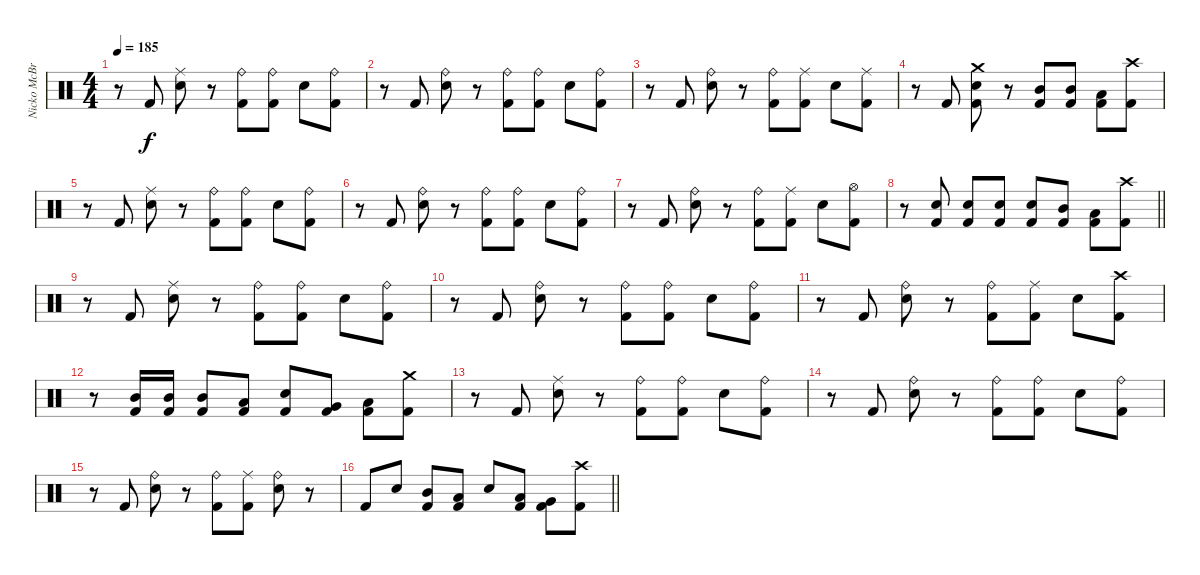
\track ("Nicko McBrain" "Nicko McBr") {instrument percussion}
\staff {score}
\articulation defaults
\ts (4 4)
\tempo 185
\clef neutral
\ks c
r.8{dy f} "Kick (hit) 2".8 ("Ride (middle)" "Snare (hit) 2").8 r.8 ("Ride (bell)" "Kick (hit) 2").8 ("Ride (bell)" "Kick (hit) 2").8 "Snare (hit) 2".8 ("Ride (bell)" "Kick (hit) 2").8 |
r.8 "Kick (hit) 2".8 ("Ride (bell)" "Snare (hit) 2").8 r.8 ("Ride (bell)" "Kick (hit) 2").8 ("Ride (bell)" "Kick (hit) 2").8 "Snare (hit) 2".8 ("Ride (bell)" "Kick (hit) 2").8 |
r.8 "Kick (hit) 2".8 ("Ride (bell)" "Snare (hit) 2").8 r.8 ("Ride (bell)" "Kick (hit) 2").8 ("Ride (middle)" "Kick (hit) 2").8 "Snare (hit) 2".8 ("Ride (middle)" "Kick (hit) 2").8 |
r.8 "Kick (hit) 2".8 ("Crash medium (hit)" "Snare (hit) 2" "Kick (hit) 2").8 r.8 ("Mid Tom (hit)" "Kick (hit) 2").8 ("Mid Tom (hit)" "Kick (hit) 2").8 ("Low Tom (hit)" "Kick (hit) 2").8 ("Crash high (hit)" "Kick (hit) 2").8 |
r.8 "Kick (hit) 2".8 ("Ride (middle)" "Snare (hit) 2").8 r.8 ("Ride (bell)" "Kick (hit) 2").8 ("Ride (bell)" "Kick (hit) 2").8 "Snare (hit) 2".8 ("Ride (bell)" "Kick (hit) 2").8 |
r.8 "Kick (hit) 2".8 ("Ride (bell)" "Snare (hit) 2").8 r.8 ("Ride (bell)" "Kick (hit) 2").8 ("Ride (bell)" "Kick (hit) 2").8 "Snare (hit) 2".8 ("Ride (bell)" "Kick (hit) 2").8 |
r.8 "Kick (hit) 2".8 ("Ride (bell)" "Snare (hit) 2").8 r.8 ("Ride (bell)" "Kick (hit) 2").8 ("Ride (middle)" "Kick (hit) 2").8 "Snare (hit) 2".8 ("Hi-Hat (open)" "Kick (hit) 2").8 |
\barLineRight lightlight
r.8 ("Snare (hit) 2" "Kick (hit) 2").8 ("Snare (hit) 2" "Kick (hit) 2").8 ("Snare (hit) 2" "Kick (hit) 2").8 ("Snare (hit) 2" "Kick (hit) 2").8 ("Mid Tom (hit)" "Kick (hit) 2").8 ("Low Tom (hit)" "Kick (hit) 2").8 ("Crash high (hit)" "Kick (hit) 2").8 |
r.8 "Kick (hit) 2".8 ("Ride (middle)" "Snare (hit) 2").8 r.8 ("Ride (bell)" "Kick (hit) 2").8 ("Ride (bell)" "Kick (hit) 2").8 "Snare (hit) 2".8 ("Ride (bell)" "Kick (hit) 2").8 |
r.8 "Kick (hit) 2".8 ("Ride (bell)" "Snare (hit) 2").8 r.8 ("Ride (bell)" "Kick (hit) 2").8 ("Ride (bell)" "Kick (hit) 2").8 "Snare (hit) 2".8 ("Ride (bell)" "Kick (hit) 2").8 |
r.8 "Kick (hit) 2".8 ("Ride (bell)" "Snare (hit) 2").8 r.8 ("Ride (bell)" "Kick (hit) 2").8 ("Ride (middle)" "Kick (hit) 2").8 "Snare (hit) 2".8 ("Crash high (hit)" "Kick (hit) 2").8 |
r.8 ("Mid Tom (hit)" "Kick (hit) 2").16 ("Mid Tom (hit)" "Kick (hit) 2").16 ("Mid Tom (hit)" "Kick (hit) 2").8 ("Low Tom (hit)" "Kick (hit) 2").8 ("Snare (hit) 2" "Kick (hit) 2").8 ("Very Low Tom (hit)" "Kick (hit) 2").8 ("Low Floor Tom (hit)" "Kick (hit) 2").8 ("Crash medium (hit)" "Kick (hit) 2").8 |
r.8 "Kick (hit) 2".8 ("Ride (middle)" "Snare (hit) 2").8 r.8 ("Ride (bell)" "Kick (hit) 2").8 ("Ride (bell)" "Kick (hit) 2").8 "Snare (hit) 2".8 ("Ride (bell)" "Kick (hit) 2").8 |
r.8 "Kick (hit) 2".8 ("Ride (bell)" "Snare (hit) 2").8 r.8 ("Ride (bell)" "Kick (hit) 2").8 ("Ride (bell)" "Kick (hit) 2").8 "Snare (hit) 2".8 ("Ride (bell)" "Kick (hit) 2").8 |
r.8 "Kick (hit) 2".8 ("Ride (bell)" "Snare (hit) 2").8 r.8 ("Ride (bell)" "Kick (hit) 2").8 ("Ride (middle)" "Kick (hit) 2").8 ("Ride (bell)" "Snare (hit) 2").8 r.8 |
\barLineRight lightlight "Kick (hit) 2".8 "Snare (hit) 2".8
("Mid Tom (hit)" "Kick (hit) 2").8 ("Low Tom (hit)" "Kick (hit) 2").8 "Snare (hit) 2".8 ("Low Tom (hit)" "Kick (hit) 2").8 ("Very Low Tom (hit)" "Kick (hit) 2").8 ("Crash high (hit)" "Kick (hit) 2").8
